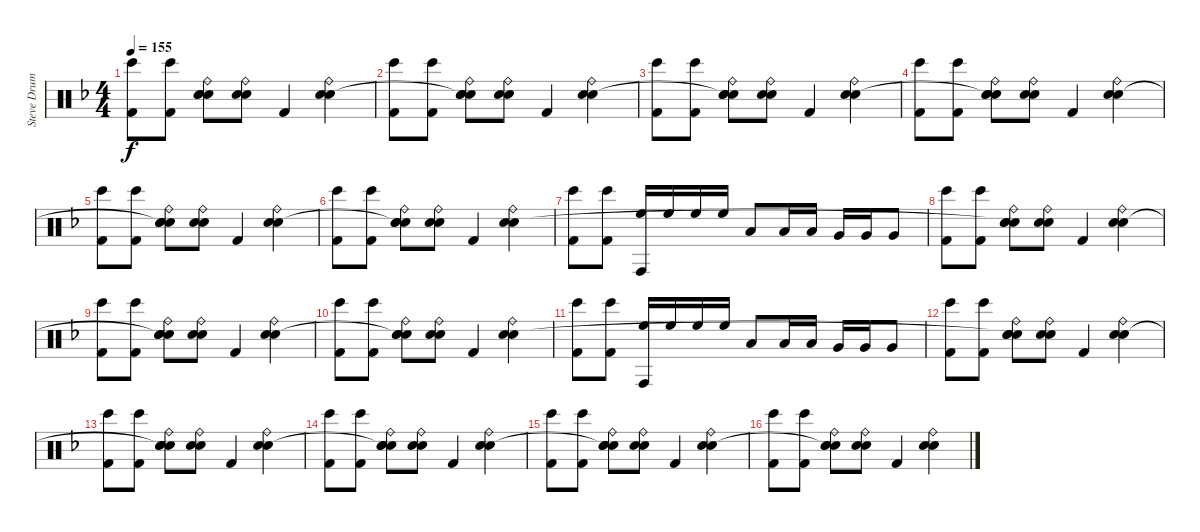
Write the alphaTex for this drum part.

\track ("Steve Drums" "Steve Drum") {instrument percussion}
\staff {score}
\articulation defaults
\ts (4 4)
\tempo 155
\clef neutral
\ks f
("Bongo High (hit)" "Kick (hit) 2").8{dy f} ("Bongo High (hit)" "Kick (hit) 2").8 ("Ride (bell)" "Snare (hit) 2" "Snare (hit)"{t} "Electric Snare (hit)").8 ("Ride (bell)" "Snare (hit) 2" "Electric Snare (hit)").8 "Kick (hit) 2".4 ("Ride (bell)" "Snare (hit) 2" "Electric Snare (hit)").4 |
("Bongo High (hit)" "Kick (hit) 2").8 ("Bongo High (hit)" "Kick (hit) 2").8 ("Ride (bell)" "Snare (hit) 2" "Snare (hit)"{t} "Electric Snare (hit)").8 ("Ride (bell)" "Snare (hit) 2" "Electric Snare (hit)").8 "Kick (hit) 2".4 ("Ride (bell)" "Snare (hit) 2" "Electric Snare (hit)").4 |
("Bongo High (hit)" "Kick (hit) 2").8 ("Bongo High (hit)" "Kick (hit) 2").8 ("Ride (bell)" "Snare (hit) 2" "Snare (hit)"{t} "Electric Snare (hit)").8 ("Ride (bell)" "Snare (hit) 2" "Electric Snare (hit)").8 "Kick (hit) 2".4 ("Ride (bell)" "Snare (hit) 2" "Electric Snare (hit)").4 |
("Bongo High (hit)" "Kick (hit) 2").8 ("Bongo High (hit)" "Kick (hit) 2").8 ("Ride (bell)" "Snare (hit) 2" "Snare (hit)"{t} "Electric Snare (hit)").8 ("Ride (bell)" "Snare (hit) 2" "Electric Snare (hit)").8 "Kick (hit) 2".4 ("Ride (bell)" "Snare (hit) 2" "Electric Snare (hit)").4 |
("Bongo High (hit)" "Kick (hit) 2").8 ("Bongo High (hit)" "Kick (hit) 2").8 ("Ride (bell)" "Snare (hit) 2" "Snare (hit)"{t} "Electric Snare (hit)").8 ("Ride (bell)" "Snare (hit) 2" "Electric Snare (hit)").8 "Kick (hit) 2".4 ("Ride (bell)" "Snare (hit) 2" "Electric Snare (hit)").4 |
("Bongo High (hit)" "Kick (hit) 2").8 ("Bongo High (hit)" "Kick (hit) 2").8 ("Ride (bell)" "Snare (hit) 2" "Snare (hit)"{t} "Electric Snare (hit)").8 ("Ride (bell)" "Snare (hit) 2" "Electric Snare (hit)").8 "Kick (hit) 2".4 ("Ride (bell)" "Snare (hit) 2" "Electric Snare (hit)").4 |
("Bongo High (hit)" "Kick (hit) 2").8 ("Bongo High (hit)" "Kick (hit) 2").8 ("Conga high (hit)" "High Floor Tom (hit)").16 "High Floor Tom (hit)".16 "High Floor Tom (hit)".16 "High Floor Tom (hit)".16 "Low Tom (hit)".8 "Low Tom (hit)".16 "Low Tom (hit)".16 "Very Low Tom (hit)".16 "Very Low Tom (hit)".16 "Very Low Tom (hit)".8 |
("Bongo High (hit)" "Kick (hit) 2").8 ("Bongo High (hit)" "Kick (hit) 2").8 ("Ride (bell)" "Snare (hit) 2" "Snare (hit)"{t} "Electric Snare (hit)").8 ("Ride (bell)" "Snare (hit) 2" "Electric Snare (hit)").8 "Kick (hit) 2".4 ("Ride (bell)" "Snare (hit) 2" "Electric Snare (hit)").4 |
("Bongo High (hit)" "Kick (hit) 2").8 ("Bongo High (hit)" "Kick (hit) 2").8 ("Ride (bell)" "Snare (hit) 2" "Snare (hit)"{t} "Electric Snare (hit)").8 ("Ride (bell)" "Snare (hit) 2" "Electric Snare (hit)").8 "Kick (hit) 2".4 ("Ride (bell)" "Snare (hit) 2" "Electric Snare (hit)").4 |
("Bongo High (hit)" "Kick (hit) 2").8 ("Bongo High (hit)" "Kick (hit) 2").8 ("Ride (bell)" "Snare (hit) 2" "Snare (hit)"{t} "Electric Snare (hit)").8 ("Ride (bell)" "Snare (hit) 2" "Electric Snare (hit)").8 "Kick (hit) 2".4 ("Ride (bell)" "Snare (hit) 2" "Electric Snare (hit)").4 |
("Bongo High (hit)" "Kick (hit) 2").8 ("Bongo High (hit)" "Kick (hit) 2").8 ("Conga high (hit)" "High Floor Tom (hit)").16 "High Floor Tom (hit)".16 "High Floor Tom (hit)".16 "High Floor Tom (hit)".16 "Low Tom (hit)".8 "Low Tom (hit)".16 "Low Tom (hit)".16 "Very Low Tom (hit)".16 "Very Low Tom (hit)".16 "Very Low Tom (hit)".8 |
("Bongo High (hit)" "Kick (hit) 2").8 ("Bongo High (hit)" "Kick (hit) 2").8 ("Ride (bell)" "Snare (hit) 2" "Snare (hit)"{t} "Electric Snare (hit)").8 ("Ride (bell)" "Snare (hit) 2" "Electric Snare (hit)").8 "Kick (hit) 2".4 ("Ride (bell)" "Snare (hit) 2" "Electric Snare (hit)").4 |
("Bongo High (hit)" "Kick (hit) 2").8 ("Bongo High (hit)" "Kick (hit) 2").8 ("Ride (bell)" "Snare (hit) 2" "Snare (hit)"{t} "Electric Snare (hit)").8 ("Ride (bell)" "Snare (hit) 2" "Electric Snare (hit)").8 "Kick (hit) 2".4 ("Ride (bell)" "Snare (hit) 2" "Electric Snare (hit)").4 |
("Bongo High (hit)" "Kick (hit) 2").8 ("Bongo High (hit)" "Kick (hit) 2").8 ("Ride (bell)" "Snare (hit) 2" "Snare (hit)"{t} "Electric Snare (hit)").8 ("Ride (bell)" "Snare (hit) 2" "Electric Snare (hit)").8 "Kick (hit) 2".4 ("Ride (bell)" "Snare (hit) 2" "Electric Snare (hit)").4 |
("Bongo High (hit)" "Kick (hit) 2").8 ("Bongo High (hit)" "Kick (hit) 2").8 ("Ride (bell)" "Snare (hit) 2" "Snare (hit)"{t} "Electric Snare (hit)").8 ("Ride (bell)" "Snare (hit) 2" "Electric Snare (hit)").8 "Kick (hit) 2".4 ("Ride (bell)" "Snare (hit) 2" "Electric Snare (hit)").4 |
("Bongo High (hit)" "Kick (hit) 2").8 ("Bongo High (hit)" "Kick (hit) 2").8 ("Ride (bell)" "Snare (hit) 2" "Snare (hit)"{t} "Electric Snare (hit)").8 ("Ride (bell)" "Snare (hit) 2" "Electric Snare (hit)").8 "Kick (hit) 2".4 ("Ride (bell)" "Snare (hit) 2" "Electric Snare (hit)").4
